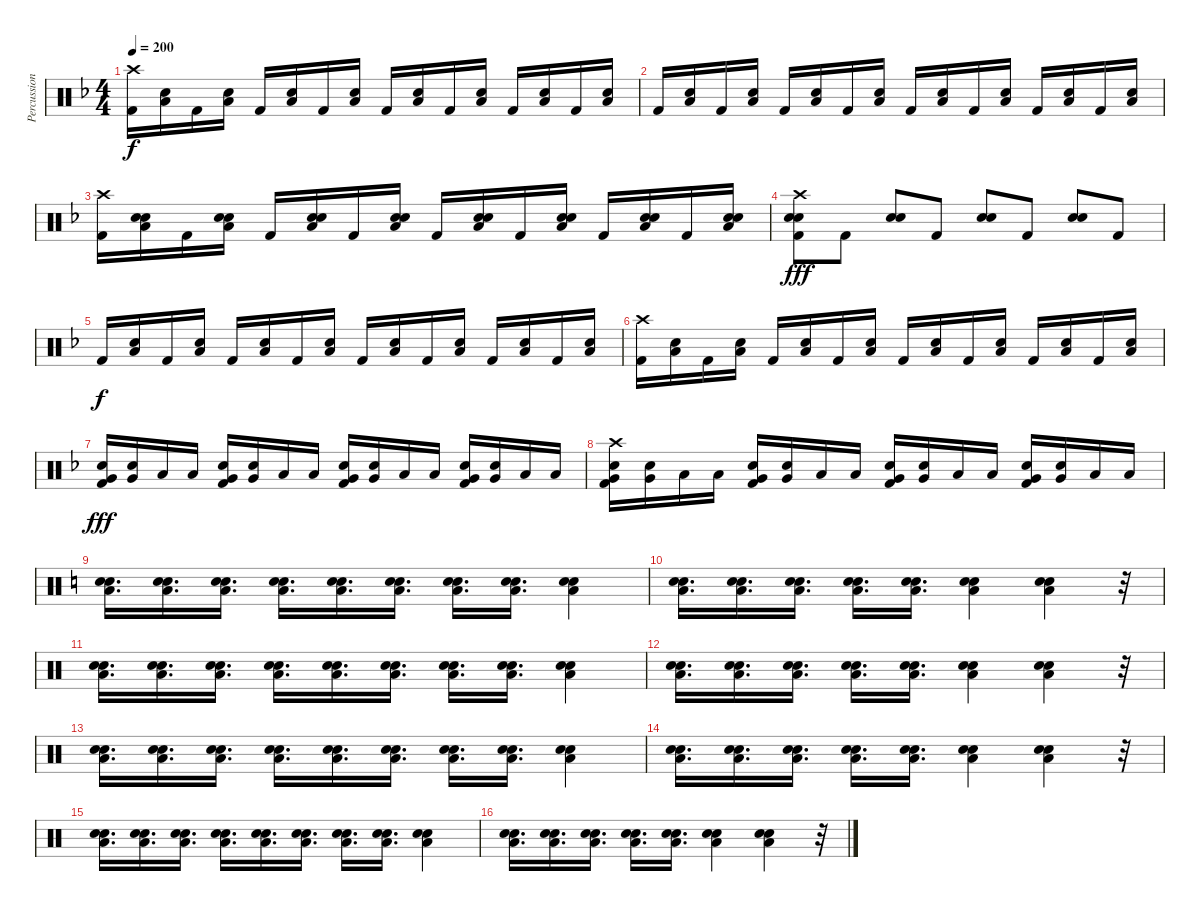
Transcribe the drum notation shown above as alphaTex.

\track ("Percussion, dave" "Percussion") {instrument percussion}
\staff {score}
\articulation defaults
\ts (4 4)
\tempo 200
\clef neutral
\ks f
("Crash high (hit)" "Kick (hit) 2").16{dy f} ("Low Tom (hit)" "Snare (hit) 2").16 "Kick (hit) 2".16 ("Low Tom (hit)" "Snare (hit) 2").16 "Kick (hit) 2".16 ("Low Tom (hit)" "Snare (hit) 2").16 "Kick (hit) 2".16 ("Low Tom (hit)" "Snare (hit) 2").16 "Kick (hit) 2".16 ("Low Tom (hit)" "Snare (hit) 2").16 "Kick (hit) 2".16 ("Low Tom (hit)" "Snare (hit) 2").16 "Kick (hit) 2".16 ("Low Tom (hit)" "Snare (hit) 2").16 "Kick (hit) 2".16 ("Low Tom (hit)" "Snare (hit) 2").16 |
"Kick (hit) 2".16 ("Low Tom (hit)" "Snare (hit) 2").16 "Kick (hit) 2".16 ("Low Tom (hit)" "Snare (hit) 2").16 "Kick (hit) 2".16 ("Low Tom (hit)" "Snare (hit) 2").16 "Kick (hit) 2".16 ("Low Tom (hit)" "Snare (hit) 2").16 "Kick (hit) 2".16 ("Low Tom (hit)" "Snare (hit) 2").16 "Kick (hit) 2".16 ("Low Tom (hit)" "Snare (hit) 2").16 "Kick (hit) 2".16 ("Low Tom (hit)" "Snare (hit) 2").16 "Kick (hit) 2".16 ("Low Tom (hit)" "Snare (hit) 2").16 |
("Crash high (hit)" "Kick (hit) 2").16 ("Electric Snare (hit)" "Low Tom (hit)" "Snare (hit) 2").16 "Kick (hit) 2".16 ("Electric Snare (hit)" "Low Tom (hit)" "Snare (hit) 2").16 "Kick (hit) 2".16 ("Electric Snare (hit)" "Low Tom (hit)" "Snare (hit) 2").16 "Kick (hit) 2".16 ("Electric Snare (hit)" "Low Tom (hit)" "Snare (hit) 2").16 "Kick (hit) 2".16 ("Electric Snare (hit)" "Low Tom (hit)" "Snare (hit) 2").16 "Kick (hit) 2".16 ("Electric Snare (hit)" "Low Tom (hit)" "Snare (hit) 2").16 "Kick (hit) 2".16 ("Electric Snare (hit)" "Low Tom (hit)" "Snare (hit) 2").16 "Kick (hit) 2".16 ("Electric Snare (hit)" "Low Tom (hit)" "Snare (hit) 2").16 |
("Crash high (hit)" "Electric Snare (hit)" "Snare (hit) 2" "Kick (hit) 2").8{dy fff} "Kick (hit) 2".8 ("Electric Snare (hit)" "Snare (hit) 2").8 "Kick (hit) 2".8 ("Electric Snare (hit)" "Snare (hit) 2").8 "Kick (hit) 2".8 ("Electric Snare (hit)" "Snare (hit) 2").8 "Kick (hit) 2".8 |
"Kick (hit) 2".16{dy f} ("Low Tom (hit)" "Snare (hit) 2").16 "Kick (hit) 2".16 ("Low Tom (hit)" "Snare (hit) 2").16 "Kick (hit) 2".16 ("Low Tom (hit)" "Snare (hit) 2").16 "Kick (hit) 2".16 ("Low Tom (hit)" "Snare (hit) 2").16 "Kick (hit) 2".16 ("Low Tom (hit)" "Snare (hit) 2").16 "Kick (hit) 2".16 ("Low Tom (hit)" "Snare (hit) 2").16 "Kick (hit) 2".16 ("Low Tom (hit)" "Snare (hit) 2").16 "Kick (hit) 2".16 ("Low Tom (hit)" "Snare (hit) 2").16 |
("Crash high (hit)" "Kick (hit) 2").16 ("Low Tom (hit)" "Snare (hit) 2").16 "Kick (hit) 2".16 ("Low Tom (hit)" "Snare (hit) 2").16 "Kick (hit) 2".16 ("Low Tom (hit)" "Snare (hit) 2").16 "Kick (hit) 2".16 ("Low Tom (hit)" "Snare (hit) 2").16 "Kick (hit) 2".16 ("Low Tom (hit)" "Snare (hit) 2").16 "Kick (hit) 2".16 ("Low Tom (hit)" "Snare (hit) 2").16 "Kick (hit) 2".16 ("Low Tom (hit)" "Snare (hit) 2").16 "Kick (hit) 2".16 ("Low Tom (hit)" "Snare (hit) 2").16 |
("Snare (hit) 2" "Very Low Tom (hit)" "Kick (hit) 2").16{dy fff} ("Snare (hit) 2" "Very Low Tom (hit)").16 "Low Tom (hit)".16 "Low Tom (hit)".16 ("Snare (hit) 2" "Very Low Tom (hit)" "Kick (hit) 2").16 ("Snare (hit) 2" "Very Low Tom (hit)").16 "Low Tom (hit)".16 "Low Tom (hit)".16 ("Snare (hit) 2" "Very Low Tom (hit)" "Kick (hit) 2").16 ("Snare (hit) 2" "Very Low Tom (hit)").16 "Low Tom (hit)".16 "Low Tom (hit)".16 ("Snare (hit) 2" "Very Low Tom (hit)" "Kick (hit) 2").16 ("Snare (hit) 2" "Very Low Tom (hit)").16 "Low Tom (hit)".16 "Low Tom (hit)".16 |
("Crash high (hit)" "Snare (hit) 2" "Very Low Tom (hit)" "Kick (hit) 2").16 ("Snare (hit) 2" "Very Low Tom (hit)").16 "Low Tom (hit)".16 "Low Tom (hit)".16 ("Snare (hit) 2" "Very Low Tom (hit)" "Kick (hit) 2").16 ("Snare (hit) 2" "Very Low Tom (hit)").16 "Low Tom (hit)".16 "Low Tom (hit)".16 ("Snare (hit) 2" "Very Low Tom (hit)" "Kick (hit) 2").16 ("Snare (hit) 2" "Very Low Tom (hit)").16 "Low Tom (hit)".16 "Low Tom (hit)".16 ("Snare (hit) 2" "Very Low Tom (hit)" "Kick (hit) 2").16 ("Snare (hit) 2" "Very Low Tom (hit)").16 "Low Tom (hit)".16 "Low Tom (hit)".16 |
\ks c
("Low Tom (hit)" "Electric Snare (hit)" "Snare (hit) 2").16{d} ("Low Tom (hit)" "Electric Snare (hit)" "Snare (hit) 2").16{d} ("Low Tom (hit)" "Electric Snare (hit)" "Snare (hit) 2").16{d} ("Low Tom (hit)" "Electric Snare (hit)" "Snare (hit) 2").16{d} ("Low Tom (hit)" "Electric Snare (hit)" "Snare (hit) 2").16{d} ("Low Tom (hit)" "Electric Snare (hit)" "Snare (hit) 2").16{d} ("Low Tom (hit)" "Electric Snare (hit)" "Snare (hit) 2").16{d} ("Low Tom (hit)" "Electric Snare (hit)" "Snare (hit) 2").16{d} ("Low Tom (hit)" "Electric Snare (hit)" "Snare (hit) 2").4 |
("Low Tom (hit)" "Electric Snare (hit)" "Snare (hit) 2").16{d} ("Low Tom (hit)" "Electric Snare (hit)" "Snare (hit) 2").16{d} ("Low Tom (hit)" "Electric Snare (hit)" "Snare (hit) 2").16{d} ("Low Tom (hit)" "Electric Snare (hit)" "Snare (hit) 2").16{d} ("Low Tom (hit)" "Electric Snare (hit)" "Snare (hit) 2").16{d} ("Low Tom (hit)" "Electric Snare (hit)" "Snare (hit) 2").4 ("Low Tom (hit)" "Electric Snare (hit)" "Snare (hit) 2").4 r.32 |
("Low Tom (hit)" "Electric Snare (hit)" "Snare (hit) 2").16{d} ("Low Tom (hit)" "Electric Snare (hit)" "Snare (hit) 2").16{d} ("Low Tom (hit)" "Electric Snare (hit)" "Snare (hit) 2").16{d} ("Low Tom (hit)" "Electric Snare (hit)" "Snare (hit) 2").16{d} ("Low Tom (hit)" "Electric Snare (hit)" "Snare (hit) 2").16{d} ("Low Tom (hit)" "Electric Snare (hit)" "Snare (hit) 2").16{d} ("Low Tom (hit)" "Electric Snare (hit)" "Snare (hit) 2").16{d} ("Low Tom (hit)" "Electric Snare (hit)" "Snare (hit) 2").16{d} ("Low Tom (hit)" "Electric Snare (hit)" "Snare (hit) 2").4 |
("Low Tom (hit)" "Electric Snare (hit)" "Snare (hit) 2").16{d} ("Low Tom (hit)" "Electric Snare (hit)" "Snare (hit) 2").16{d} ("Low Tom (hit)" "Electric Snare (hit)" "Snare (hit) 2").16{d} ("Low Tom (hit)" "Electric Snare (hit)" "Snare (hit) 2").16{d} ("Low Tom (hit)" "Electric Snare (hit)" "Snare (hit) 2").16{d} ("Low Tom (hit)" "Electric Snare (hit)" "Snare (hit) 2").4 ("Low Tom (hit)" "Electric Snare (hit)" "Snare (hit) 2").4 r.32 |
("Low Tom (hit)" "Electric Snare (hit)" "Snare (hit) 2").16{d} ("Low Tom (hit)" "Electric Snare (hit)" "Snare (hit) 2").16{d} ("Low Tom (hit)" "Electric Snare (hit)" "Snare (hit) 2").16{d} ("Low Tom (hit)" "Electric Snare (hit)" "Snare (hit) 2").16{d} ("Low Tom (hit)" "Electric Snare (hit)" "Snare (hit) 2").16{d} ("Low Tom (hit)" "Electric Snare (hit)" "Snare (hit) 2").16{d} ("Low Tom (hit)" "Electric Snare (hit)" "Snare (hit) 2").16{d} ("Low Tom (hit)" "Electric Snare (hit)" "Snare (hit) 2").16{d} ("Low Tom (hit)" "Electric Snare (hit)" "Snare (hit) 2").4 |
("Low Tom (hit)" "Electric Snare (hit)" "Snare (hit) 2").16{d} ("Low Tom (hit)" "Electric Snare (hit)" "Snare (hit) 2").16{d} ("Low Tom (hit)" "Electric Snare (hit)" "Snare (hit) 2").16{d} ("Low Tom (hit)" "Electric Snare (hit)" "Snare (hit) 2").16{d} ("Low Tom (hit)" "Electric Snare (hit)" "Snare (hit) 2").16{d} ("Low Tom (hit)" "Electric Snare (hit)" "Snare (hit) 2").4 ("Low Tom (hit)" "Electric Snare (hit)" "Snare (hit) 2").4 r.32 |
("Low Tom (hit)" "Electric Snare (hit)" "Snare (hit) 2").16{d} ("Low Tom (hit)" "Electric Snare (hit)" "Snare (hit) 2").16{d} ("Low Tom (hit)" "Electric Snare (hit)" "Snare (hit) 2").16{d} ("Low Tom (hit)" "Electric Snare (hit)" "Snare (hit) 2").16{d} ("Low Tom (hit)" "Electric Snare (hit)" "Snare (hit) 2").16{d} ("Low Tom (hit)" "Electric Snare (hit)" "Snare (hit) 2").16{d} ("Low Tom (hit)" "Electric Snare (hit)" "Snare (hit) 2").16{d} ("Low Tom (hit)" "Electric Snare (hit)" "Snare (hit) 2").16{d} ("Low Tom (hit)" "Electric Snare (hit)" "Snare (hit) 2").4 |
("Low Tom (hit)" "Electric Snare (hit)" "Snare (hit) 2").16{d} ("Low Tom (hit)" "Electric Snare (hit)" "Snare (hit) 2").16{d} ("Low Tom (hit)" "Electric Snare (hit)" "Snare (hit) 2").16{d} ("Low Tom (hit)" "Electric Snare (hit)" "Snare (hit) 2").16{d} ("Low Tom (hit)" "Electric Snare (hit)" "Snare (hit) 2").16{d} ("Low Tom (hit)" "Electric Snare (hit)" "Snare (hit) 2").4 ("Low Tom (hit)" "Electric Snare (hit)" "Snare (hit) 2").4 r.32
